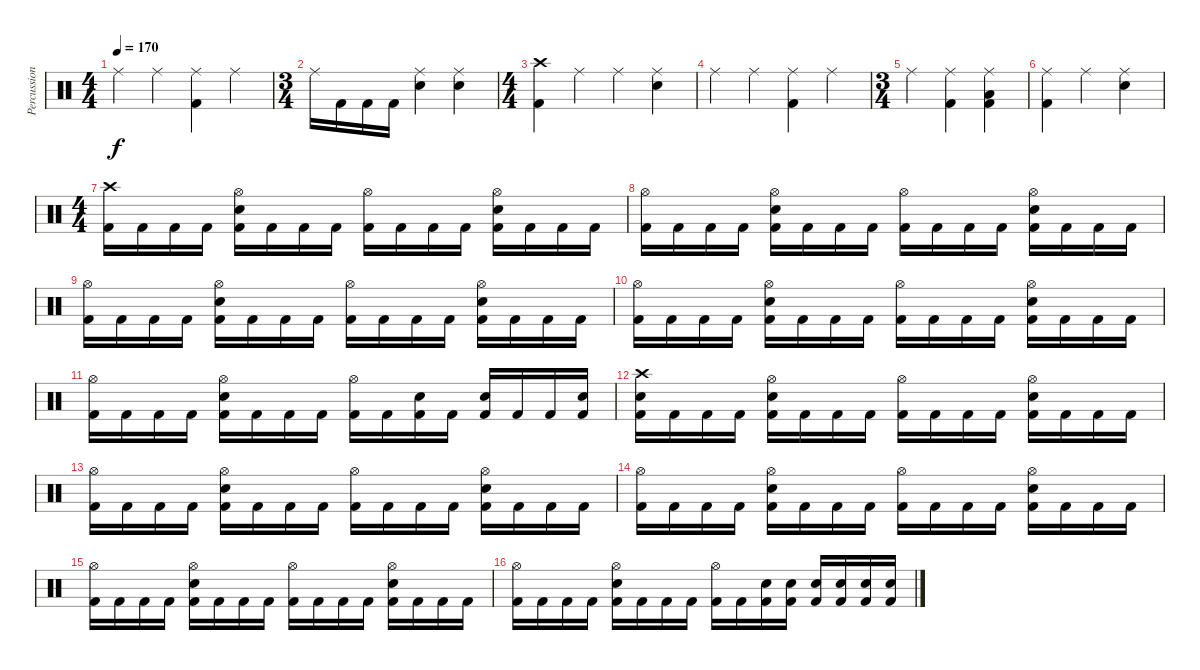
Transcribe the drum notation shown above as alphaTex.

\track ("Percussion" "Percussion") {instrument percussion}
\staff {score}
\articulation defaults
\ts (4 4)
\tempo 170
\clef neutral
\ks c "Ride (middle)".4{dy f} "Ride (middle)".4
("Kick (hit) 2" "Ride (middle)").4 "Ride (middle)".4 |
\ts (3 4)
"Ride (middle)".16 "Kick (hit) 2".16 "Kick (hit) 2".16 "Kick (hit) 2".16 ("Snare (hit) 2" "Ride (middle)").4 ("Snare (hit) 2" "Ride (middle)").4 |
\ts (4 4)
("Kick (hit) 2" "Crash high (hit)").4 "Ride (middle)".4 "Ride (middle)".4 ("Snare (hit) 2" "Ride (middle)").4 |
"Ride (middle)".4 "Ride (middle)".4 ("Kick (hit) 2" "Ride (middle)").4 "Ride (middle)".4 |
\ts (3 4)
"Ride (middle)".4 ("Kick (hit) 2" "Ride (middle)").4 ("Kick (hit) 2" "Ride (middle)" "Low Floor Tom (hit)").4 |
("Kick (hit) 2" "Ride (middle)").4 "Ride (middle)".4 ("Snare (hit) 2" "Ride (middle)").4 |
\ts (4 4)
("Kick (hit) 2" "Crash high (hit)").16 "Kick (hit) 2".16 "Kick (hit) 2".16 "Kick (hit) 2".16 ("Kick (hit) 2" "Snare (hit) 2" "Hi-Hat (open)").16 "Kick (hit) 2".16 "Kick (hit) 2".16 "Kick (hit) 2".16 ("Kick (hit) 2" "Hi-Hat (open)").16 "Kick (hit) 2".16 "Kick (hit) 2".16 "Kick (hit) 2".16 ("Kick (hit) 2" "Snare (hit) 2" "Hi-Hat (open)").16 "Kick (hit) 2".16 "Kick (hit) 2".16 "Kick (hit) 2".16 |
("Kick (hit) 2" "Hi-Hat (open)").16 "Kick (hit) 2".16 "Kick (hit) 2".16 "Kick (hit) 2".16 ("Kick (hit) 2" "Snare (hit) 2" "Hi-Hat (open)").16 "Kick (hit) 2".16 "Kick (hit) 2".16 "Kick (hit) 2".16 ("Kick (hit) 2" "Hi-Hat (open)").16 "Kick (hit) 2".16 "Kick (hit) 2".16 "Kick (hit) 2".16 ("Kick (hit) 2" "Snare (hit) 2" "Hi-Hat (open)").16 "Kick (hit) 2".16 "Kick (hit) 2".16 "Kick (hit) 2".16 |
("Kick (hit) 2" "Hi-Hat (open)").16 "Kick (hit) 2".16 "Kick (hit) 2".16 "Kick (hit) 2".16 ("Kick (hit) 2" "Snare (hit) 2" "Hi-Hat (open)").16 "Kick (hit) 2".16 "Kick (hit) 2".16 "Kick (hit) 2".16 ("Kick (hit) 2" "Hi-Hat (open)").16 "Kick (hit) 2".16 "Kick (hit) 2".16 "Kick (hit) 2".16 ("Kick (hit) 2" "Snare (hit) 2" "Hi-Hat (open)").16 "Kick (hit) 2".16 "Kick (hit) 2".16 "Kick (hit) 2".16 |
("Kick (hit) 2" "Hi-Hat (open)").16 "Kick (hit) 2".16 "Kick (hit) 2".16 "Kick (hit) 2".16 ("Kick (hit) 2" "Snare (hit) 2" "Hi-Hat (open)").16 "Kick (hit) 2".16 "Kick (hit) 2".16 "Kick (hit) 2".16 ("Kick (hit) 2" "Hi-Hat (open)").16 "Kick (hit) 2".16 "Kick (hit) 2".16 "Kick (hit) 2".16 ("Kick (hit) 2" "Snare (hit) 2" "Hi-Hat (open)").16 "Kick (hit) 2".16 "Kick (hit) 2".16 "Kick (hit) 2".16 |
("Kick (hit) 2" "Hi-Hat (open)").16 "Kick (hit) 2".16 "Kick (hit) 2".16 "Kick (hit) 2".16 ("Kick (hit) 2" "Snare (hit) 2" "Hi-Hat (open)").16 "Kick (hit) 2".16 "Kick (hit) 2".16 "Kick (hit) 2".16 ("Kick (hit) 2" "Hi-Hat (open)").16 "Kick (hit) 2".16 ("Kick (hit) 2" "Snare (hit) 2").16 "Kick (hit) 2".16 ("Kick (hit) 2" "Snare (hit) 2").16 "Kick (hit) 2".16 "Kick (hit) 2".16 ("Kick (hit) 2" "Snare (hit) 2").16 |
("Kick (hit) 2" "Snare (hit) 2" "Crash high (hit)").16 "Kick (hit) 2".16 "Kick (hit) 2".16 "Kick (hit) 2".16 ("Kick (hit) 2" "Snare (hit) 2" "Hi-Hat (open)").16 "Kick (hit) 2".16 "Kick (hit) 2".16 "Kick (hit) 2".16 ("Kick (hit) 2" "Hi-Hat (open)").16 "Kick (hit) 2".16 "Kick (hit) 2".16 "Kick (hit) 2".16 ("Kick (hit) 2" "Snare (hit) 2" "Hi-Hat (open)").16 "Kick (hit) 2".16 "Kick (hit) 2".16 "Kick (hit) 2".16 |
("Kick (hit) 2" "Hi-Hat (open)").16 "Kick (hit) 2".16 "Kick (hit) 2".16 "Kick (hit) 2".16 ("Kick (hit) 2" "Snare (hit) 2" "Hi-Hat (open)").16 "Kick (hit) 2".16 "Kick (hit) 2".16 "Kick (hit) 2".16 ("Kick (hit) 2" "Hi-Hat (open)").16 "Kick (hit) 2".16 "Kick (hit) 2".16 "Kick (hit) 2".16 ("Kick (hit) 2" "Snare (hit) 2" "Hi-Hat (open)").16 "Kick (hit) 2".16 "Kick (hit) 2".16 "Kick (hit) 2".16 |
("Kick (hit) 2" "Hi-Hat (open)").16 "Kick (hit) 2".16 "Kick (hit) 2".16 "Kick (hit) 2".16 ("Kick (hit) 2" "Snare (hit) 2" "Hi-Hat (open)").16 "Kick (hit) 2".16 "Kick (hit) 2".16 "Kick (hit) 2".16 ("Kick (hit) 2" "Hi-Hat (open)").16 "Kick (hit) 2".16 "Kick (hit) 2".16 "Kick (hit) 2".16 ("Kick (hit) 2" "Snare (hit) 2" "Hi-Hat (open)").16 "Kick (hit) 2".16 "Kick (hit) 2".16 "Kick (hit) 2".16 |
("Kick (hit) 2" "Hi-Hat (open)").16 "Kick (hit) 2".16 "Kick (hit) 2".16 "Kick (hit) 2".16 ("Kick (hit) 2" "Snare (hit) 2" "Hi-Hat (open)").16 "Kick (hit) 2".16 "Kick (hit) 2".16 "Kick (hit) 2".16 ("Kick (hit) 2" "Hi-Hat (open)").16 "Kick (hit) 2".16 "Kick (hit) 2".16 "Kick (hit) 2".16 ("Kick (hit) 2" "Snare (hit) 2" "Hi-Hat (open)").16 "Kick (hit) 2".16 "Kick (hit) 2".16 "Kick (hit) 2".16 |
("Kick (hit) 2" "Hi-Hat (open)").16 "Kick (hit) 2".16 "Kick (hit) 2".16 "Kick (hit) 2".16 ("Kick (hit) 2" "Snare (hit) 2" "Hi-Hat (open)").16 "Kick (hit) 2".16 "Kick (hit) 2".16 "Kick (hit) 2".16 ("Kick (hit) 2" "Hi-Hat (open)").16 "Kick (hit) 2".16 ("Kick (hit) 2" "Snare (hit) 2").16 ("Kick (hit) 2" "Snare (hit) 2").16 ("Kick (hit) 2" "Snare (hit) 2").16 ("Kick (hit) 2" "Snare (hit) 2").16 ("Kick (hit) 2" "Snare (hit) 2").16 ("Kick (hit) 2" "Snare (hit) 2").16
